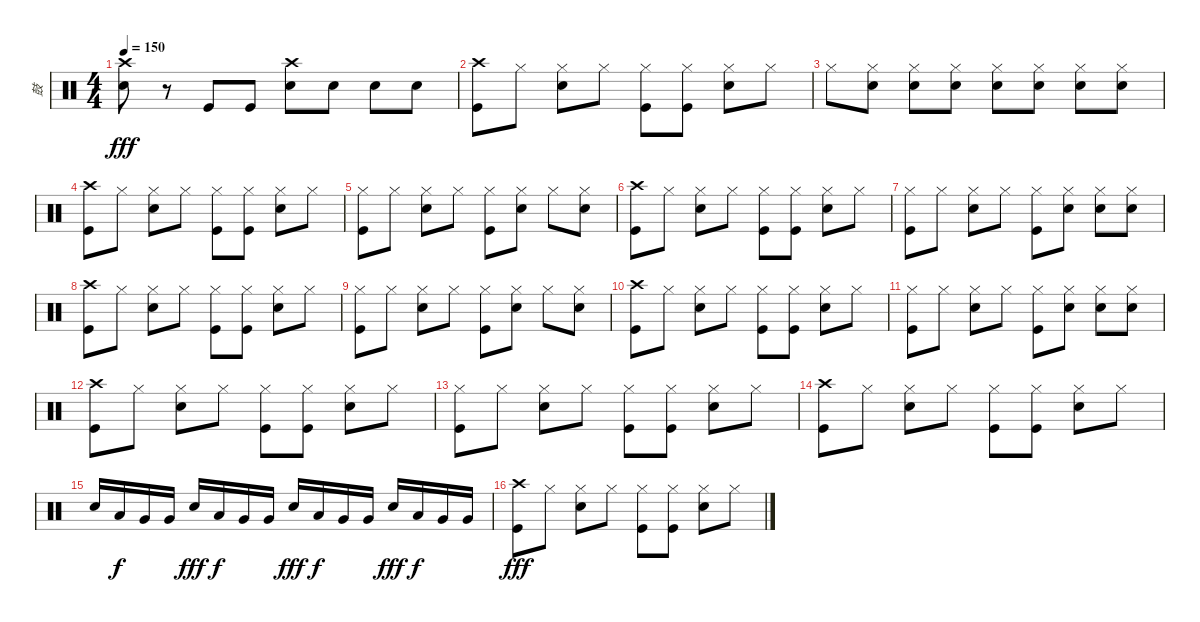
\track ("鼓" "鼓") {instrument percussion}
\staff {score}
\articulation defaults
\ts (4 4)
\tempo 150
\clef neutral
\ks c
("Crash high (hit)" "Electric Snare (hit)").8{dy fff} r.8 "Kick (hit)".8 "Kick (hit)".8 ("Crash high (hit)" "Electric Snare (hit)").8 "Electric Snare (hit)".8 "Electric Snare (hit)".8 "Electric Snare (hit)".8 |
("Crash high (hit)" "Kick (hit)").8 "Hi-Hat (closed)".8 ("Hi-Hat (closed)" "Electric Snare (hit)").8 "Hi-Hat (closed)".8 ("Hi-Hat (closed)" "Kick (hit)").8 ("Hi-Hat (closed)" "Kick (hit)").8 ("Hi-Hat (closed)" "Electric Snare (hit)").8 "Hi-Hat (closed)".8 |
"Hi-Hat (closed)".8 ("Hi-Hat (closed)" "Electric Snare (hit)").8 ("Hi-Hat (closed)" "Electric Snare (hit)").8 ("Hi-Hat (closed)" "Electric Snare (hit)").8 ("Hi-Hat (closed)" "Electric Snare (hit)").8 ("Hi-Hat (closed)" "Electric Snare (hit)").8 ("Hi-Hat (closed)" "Electric Snare (hit)").8 ("Hi-Hat (closed)" "Electric Snare (hit)").8 |
("Crash high (hit)" "Kick (hit)").8 "Hi-Hat (closed)".8 ("Hi-Hat (closed)" "Electric Snare (hit)").8 "Hi-Hat (closed)".8 ("Hi-Hat (closed)" "Kick (hit)").8 ("Hi-Hat (closed)" "Kick (hit)").8 ("Hi-Hat (closed)" "Electric Snare (hit)").8 "Hi-Hat (closed)".8 |
("Hi-Hat (closed)" "Kick (hit)").8 "Hi-Hat (closed)".8 ("Hi-Hat (closed)" "Electric Snare (hit)").8 "Hi-Hat (closed)".8 ("Hi-Hat (closed)" "Kick (hit)").8 ("Hi-Hat (closed)" "Electric Snare (hit)").8 "Hi-Hat (closed)".8 ("Hi-Hat (closed)" "Electric Snare (hit)").8 |
("Crash high (hit)" "Kick (hit)").8 "Hi-Hat (closed)".8 ("Hi-Hat (closed)" "Electric Snare (hit)").8 "Hi-Hat (closed)".8 ("Hi-Hat (closed)" "Kick (hit)").8 ("Hi-Hat (closed)" "Kick (hit)").8 ("Hi-Hat (closed)" "Electric Snare (hit)").8 "Hi-Hat (closed)".8 |
("Hi-Hat (closed)" "Kick (hit)").8 "Hi-Hat (closed)".8 ("Hi-Hat (closed)" "Electric Snare (hit)").8 "Hi-Hat (closed)".8 ("Hi-Hat (closed)" "Kick (hit)").8 ("Hi-Hat (closed)" "Electric Snare (hit)").8 ("Hi-Hat (closed)" "Electric Snare (hit)").8 ("Hi-Hat (closed)" "Electric Snare (hit)").8 |
("Crash high (hit)" "Kick (hit)").8 "Hi-Hat (closed)".8 ("Hi-Hat (closed)" "Electric Snare (hit)").8 "Hi-Hat (closed)".8 ("Hi-Hat (closed)" "Kick (hit)").8 ("Hi-Hat (closed)" "Kick (hit)").8 ("Hi-Hat (closed)" "Electric Snare (hit)").8 "Hi-Hat (closed)".8 |
("Hi-Hat (closed)" "Kick (hit)").8 "Hi-Hat (closed)".8 ("Hi-Hat (closed)" "Electric Snare (hit)").8 "Hi-Hat (closed)".8 ("Hi-Hat (closed)" "Kick (hit)").8 ("Hi-Hat (closed)" "Electric Snare (hit)").8 "Hi-Hat (closed)".8 ("Hi-Hat (closed)" "Electric Snare (hit)").8 |
("Crash high (hit)" "Kick (hit)").8 "Hi-Hat (closed)".8 ("Hi-Hat (closed)" "Electric Snare (hit)").8 "Hi-Hat (closed)".8 ("Hi-Hat (closed)" "Kick (hit)").8 ("Hi-Hat (closed)" "Kick (hit)").8 ("Hi-Hat (closed)" "Electric Snare (hit)").8 "Hi-Hat (closed)".8 |
("Hi-Hat (closed)" "Kick (hit)").8 "Hi-Hat (closed)".8 ("Hi-Hat (closed)" "Electric Snare (hit)").8 "Hi-Hat (closed)".8 ("Hi-Hat (closed)" "Kick (hit)").8 ("Hi-Hat (closed)" "Electric Snare (hit)").8 ("Hi-Hat (closed)" "Electric Snare (hit)").8 ("Hi-Hat (closed)" "Electric Snare (hit)").8 |
("Crash high (hit)" "Kick (hit)").8 "Hi-Hat (closed)".8 ("Hi-Hat (closed)" "Electric Snare (hit)").8 "Hi-Hat (closed)".8 ("Hi-Hat (closed)" "Kick (hit)").8 ("Hi-Hat (closed)" "Kick (hit)").8 ("Hi-Hat (closed)" "Electric Snare (hit)").8 "Hi-Hat (closed)".8 |
("Hi-Hat (closed)" "Kick (hit)").8 "Hi-Hat (closed)".8 ("Hi-Hat (closed)" "Electric Snare (hit)").8 "Hi-Hat (closed)".8 ("Hi-Hat (closed)" "Kick (hit)").8 ("Hi-Hat (closed)" "Kick (hit)").8 ("Hi-Hat (closed)" "Electric Snare (hit)").8 "Hi-Hat (closed)".8 |
("Crash high (hit)" "Kick (hit)").8 "Hi-Hat (closed)".8 ("Hi-Hat (closed)" "Electric Snare (hit)").8 "Hi-Hat (closed)".8 ("Hi-Hat (closed)" "Kick (hit)").8 ("Hi-Hat (closed)" "Kick (hit)").8 ("Hi-Hat (closed)" "Electric Snare (hit)").8 "Hi-Hat (closed)".8 |
"Electric Snare (hit)".16 "Low Tom (hit)".16{dy f} "Very Low Tom (hit)".16 "Very Low Tom (hit)".16 "Electric Snare (hit)".16{dy fff} "Low Tom (hit)".16{dy f} "Very Low Tom (hit)".16 "Very Low Tom (hit)".16 "Electric Snare (hit)".16{dy fff} "Low Tom (hit)".16{dy f} "Very Low Tom (hit)".16 "Very Low Tom (hit)".16 "Electric Snare (hit)".16{dy fff} "Low Tom (hit)".16{dy f} "Very Low Tom (hit)".16 "Very Low Tom (hit)".16 |
("Crash high (hit)" "Kick (hit)").8{dy fff} "Hi-Hat (closed)".8 ("Hi-Hat (closed)" "Electric Snare (hit)").8 "Hi-Hat (closed)".8 ("Hi-Hat (closed)" "Kick (hit)").8 ("Hi-Hat (closed)" "Kick (hit)").8 ("Hi-Hat (closed)" "Electric Snare (hit)").8 "Hi-Hat (closed)".8
